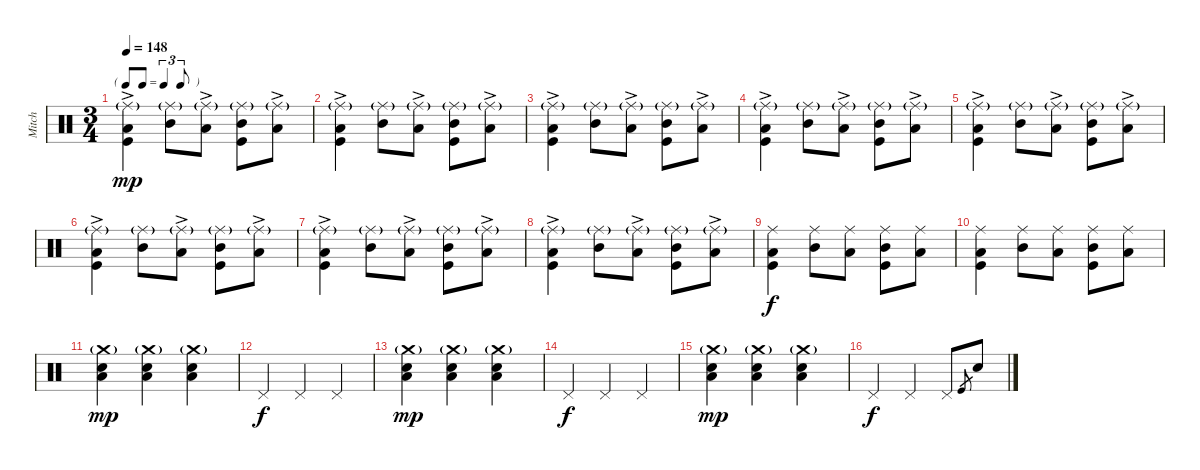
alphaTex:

\track ("Mitch" "Mitch") {instrument percussion}
\staff {score}
\articulation defaults
\ts (3 4)
\tf triplet8th
\tempo 148
\clef neutral
\ks c
("Low Floor Tom (hit)"{ac} "Kick (hit)" "Ride (middle)"{g}).4{dy mp} ("Mid Tom (hit)" "Ride (middle)"{g}).8 ("Low Tom (hit)"{ac} "Ride (middle)"{g}).8 ("Mid Tom (hit)" "Kick (hit)" "Ride (middle)"{g}).8 ("Low Tom (hit)"{ac} "Ride (middle)"{g}).8 |
("Low Floor Tom (hit)"{ac} "Kick (hit)" "Ride (middle)"{g}).4 ("Mid Tom (hit)" "Ride (middle)"{g}).8 ("Low Tom (hit)"{ac} "Ride (middle)"{g}).8 ("Mid Tom (hit)" "Kick (hit)" "Ride (middle)"{g}).8 ("Low Tom (hit)"{ac} "Ride (middle)"{g}).8 |
("Low Floor Tom (hit)"{ac} "Kick (hit)" "Ride (middle)"{g}).4 ("Mid Tom (hit)" "Ride (middle)"{g}).8 ("Low Tom (hit)"{ac} "Ride (middle)"{g}).8 ("Mid Tom (hit)" "Kick (hit)" "Ride (middle)"{g}).8 ("Low Tom (hit)"{ac} "Ride (middle)"{g}).8 |
("Low Floor Tom (hit)"{ac} "Kick (hit)" "Ride (middle)"{g}).4 ("Mid Tom (hit)" "Ride (middle)"{g}).8 ("Low Tom (hit)"{ac} "Ride (middle)"{g}).8 ("Mid Tom (hit)" "Kick (hit)" "Ride (middle)"{g}).8 ("Low Tom (hit)"{ac} "Ride (middle)"{g}).8 |
("Low Floor Tom (hit)"{ac} "Kick (hit)" "Ride (middle)"{g}).4 ("Mid Tom (hit)" "Ride (middle)"{g}).8 ("Low Tom (hit)"{ac} "Ride (middle)"{g}).8 ("Mid Tom (hit)" "Kick (hit)" "Ride (middle)"{g}).8 ("Low Tom (hit)"{ac} "Ride (middle)"{g}).8 |
("Low Floor Tom (hit)"{ac} "Kick (hit)" "Ride (middle)"{g}).4 ("Mid Tom (hit)" "Ride (middle)"{g}).8 ("Low Tom (hit)"{ac} "Ride (middle)"{g}).8 ("Mid Tom (hit)" "Kick (hit)" "Ride (middle)"{g}).8 ("Low Tom (hit)"{ac} "Ride (middle)"{g}).8 |
("Low Floor Tom (hit)"{ac} "Kick (hit)" "Ride (middle)"{g}).4 ("Mid Tom (hit)" "Ride (middle)"{g}).8 ("Low Tom (hit)"{ac} "Ride (middle)"{g}).8 ("Mid Tom (hit)" "Kick (hit)" "Ride (middle)"{g}).8 ("Low Tom (hit)"{ac} "Ride (middle)"{g}).8 |
("Low Floor Tom (hit)"{ac} "Kick (hit)" "Ride (middle)"{g}).4 ("Mid Tom (hit)" "Ride (middle)"{g}).8 ("Low Tom (hit)"{ac} "Ride (middle)"{g}).8 ("Mid Tom (hit)" "Kick (hit)" "Ride (middle)"{g}).8 ("Low Tom (hit)"{ac} "Ride (middle)"{g}).8 |
("Low Floor Tom (hit)" "Kick (hit)" "Ride (middle)").4{dy f} ("Mid Tom (hit)" "Ride (middle)").8 ("Low Tom (hit)" "Ride (middle)").8 ("Mid Tom (hit)" "Kick (hit)" "Ride (middle)").8 ("Low Tom (hit)" "Ride (middle)").8 |
("Low Floor Tom (hit)" "Kick (hit)" "Ride (middle)").4 ("Mid Tom (hit)" "Ride (middle)").8 ("Low Tom (hit)" "Ride (middle)").8 ("Mid Tom (hit)" "Kick (hit)" "Ride (middle)").8 ("Low Tom (hit)" "Ride (middle)").8 |
("Snare (hit) 2" "Crash medium (hit)"{g} "Low Tom (hit)").4{dy mp} ("Snare (hit) 2" "Crash medium (hit)"{g} "Low Tom (hit)").4 ("Snare (hit) 2" "Crash medium (hit)"{g} "Low Tom (hit)").4 |
"Pedal Hi-Hat (hit)".4{dy f} "Pedal Hi-Hat (hit)".4 "Pedal Hi-Hat (hit)".4 |
("Snare (hit) 2" "Crash medium (hit)"{g} "Low Tom (hit)").4{dy mp} ("Snare (hit) 2" "Crash medium (hit)"{g} "Low Tom (hit)").4 ("Snare (hit) 2" "Crash medium (hit)"{g} "Low Tom (hit)").4 |
"Pedal Hi-Hat (hit)".4{dy f} "Pedal Hi-Hat (hit)".4 "Pedal Hi-Hat (hit)".4 |
("Snare (hit) 2" "Crash medium (hit)"{g} "Low Tom (hit)").4{dy mp} ("Snare (hit) 2" "Crash medium (hit)"{g} "Low Tom (hit)").4 ("Snare (hit) 2" "Crash medium (hit)"{g} "Low Tom (hit)").4 |
"Pedal Hi-Hat (hit)".4{dy f} "Pedal Hi-Hat (hit)".4 "Pedal Hi-Hat (hit)".8 "Kick (hit)".8{gr} "Snare (hit) 2".8
